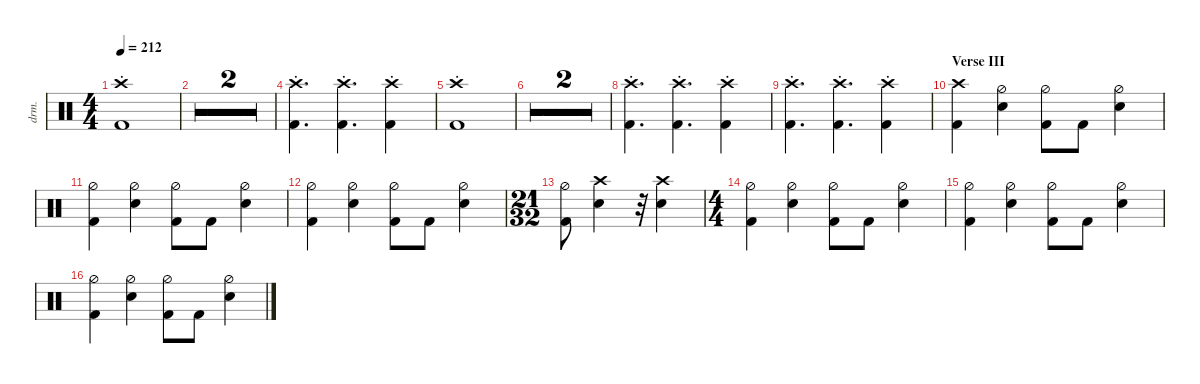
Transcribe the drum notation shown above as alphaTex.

\defaultSystemsLayout 4
\hideDynamics
\bracketExtendMode nobrackets
\track ("Drums" "drm.") {defaultSystemsLayout 4 multiBarRest instrument percussion}
\staff
\articulation defaults
\ts (4 4)
\tempo 212
\clef neutral
\ks c
("Kick (hit) 2" "Crash high (hit)"{st}).1{dy f} |
r.1 |
r.1 |
("Kick (hit) 2" "Crash high (hit)"{st}).4{d} ("Kick (hit) 2" "Crash high (hit)"{st}).4{d} ("Kick (hit) 2" "Crash high (hit)"{st}).4 |
("Kick (hit) 2" "Crash high (hit)"{st}).1 |
r.1 |
r.1 |
("Kick (hit) 2" "Crash high (hit)"{st}).4{d} ("Kick (hit) 2" "Crash high (hit)"{st}).4{d} ("Kick (hit) 2" "Crash high (hit)"{st}).4 |
("Kick (hit) 2" "Crash high (hit)"{st}).4{d} ("Kick (hit) 2" "Crash high (hit)"{st}).4{d} ("Kick (hit) 2" "Crash high (hit)"{st}).4 |
\section ("" "Verse III")
("Crash high (hit)" "Kick (hit) 2").4 ("Hi-Hat (half)" "Snare (hit) 2").4 ("Hi-Hat (half)" "Kick (hit) 2").8 "Kick (hit) 2".8 ("Hi-Hat (half)" "Snare (hit) 2").4 |
("Kick (hit) 2" "Hi-Hat (half)").4 ("Hi-Hat (half)" "Snare (hit) 2").4 ("Hi-Hat (half)" "Kick (hit) 2").8 "Kick (hit) 2".8 ("Hi-Hat (half)" "Snare (hit) 2").4 |
("Kick (hit) 2" "Hi-Hat (half)").4 ("Hi-Hat (half)" "Snare (hit) 2").4 ("Hi-Hat (half)" "Kick (hit) 2").8 "Kick (hit) 2".8 ("Hi-Hat (half)" "Snare (hit) 2").4 |
\ts (21 32)
\beaming (8 3 2)
("Kick (hit) 2" "Hi-Hat (half)").8 ("Snare (hit) 2" "Crash high (hit)").4 r.32 ("Snare (hit) 2" "Crash high (hit)").4 |
\ts (4 4)
\beaming (8 2 2 2 2)
("Kick (hit) 2" "Hi-Hat (half)").4 ("Hi-Hat (half)" "Snare (hit) 2").4 ("Hi-Hat (half)" "Kick (hit) 2").8 "Kick (hit) 2".8 ("Hi-Hat (half)" "Snare (hit) 2").4 |
("Kick (hit) 2" "Hi-Hat (half)").4 ("Hi-Hat (half)" "Snare (hit) 2").4 ("Hi-Hat (half)" "Kick (hit) 2").8 "Kick (hit) 2".8 ("Hi-Hat (half)" "Snare (hit) 2").4 |
("Hi-Hat (half)" "Kick (hit) 2").4 ("Snare (hit) 2" "Hi-Hat (half)").4 ("Hi-Hat (half)" "Kick (hit) 2").8 "Kick (hit) 2".8 ("Hi-Hat (half)" "Snare (hit) 2").4
